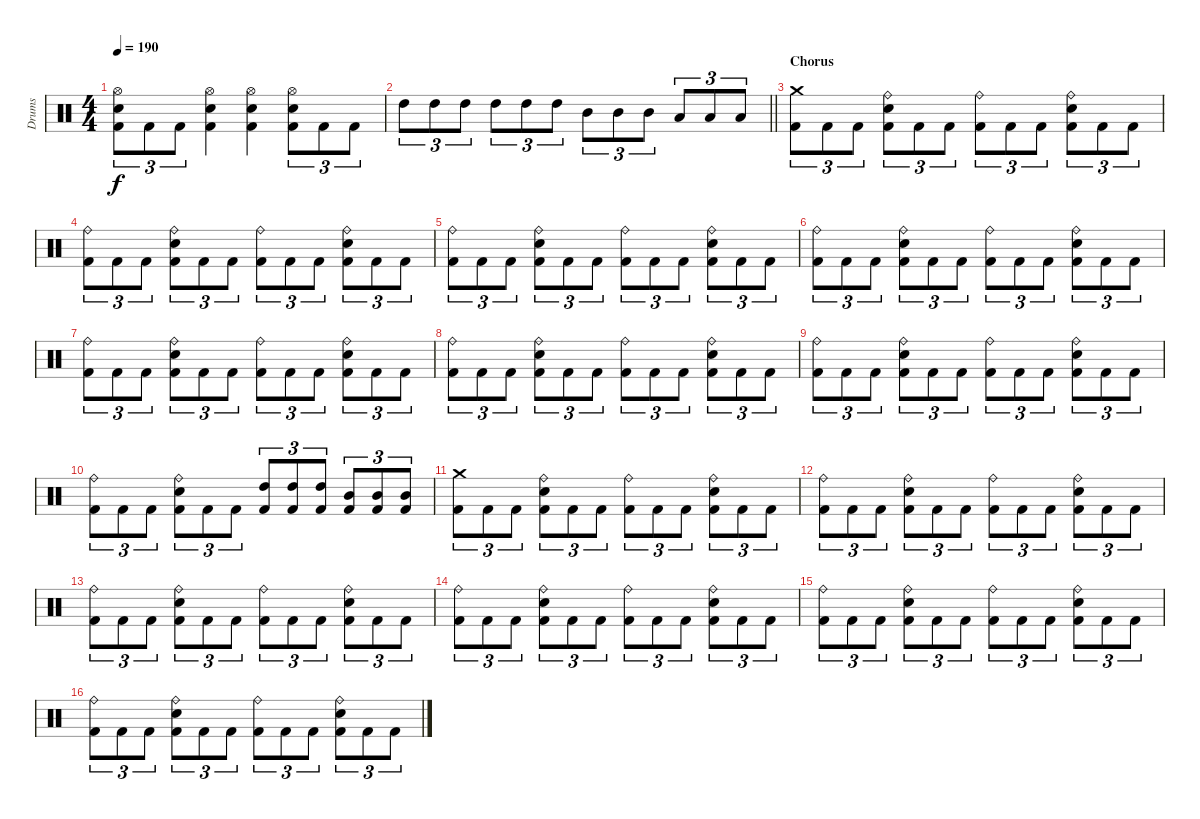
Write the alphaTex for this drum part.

\track ("Drums" "Drums") {instrument percussion}
\staff {score}
\articulation defaults
\ts (4 4)
\tempo 190
\clef neutral
\ks c
("Hi-Hat (open)" "Electric Snare (hit)" "Kick (hit) 2").8{tu (3 2) dy f} "Kick (hit) 2".8{tu (3 2)} "Kick (hit) 2".8{tu (3 2)} ("Hi-Hat (open)" "Electric Snare (hit)" "Kick (hit) 2").4 ("Hi-Hat (open)" "Electric Snare (hit)" "Kick (hit) 2").4 ("Hi-Hat (open)" "Electric Snare (hit)" "Kick (hit) 2").8{tu (3 2)} "Kick (hit) 2".8{tu (3 2)} "Kick (hit) 2".8{tu (3 2)} |
\barLineRight lightlight "High Tom (hit)".8{tu (3 2)} "High Tom (hit)".8{tu (3 2)} "High Tom (hit)".8{tu (3 2)} "High Tom (hit)".8{tu (3 2)} "High Tom (hit)".8{tu (3 2)} "High Tom (hit)".8{tu (3 2)} "Mid Tom (hit)".8{tu (3 2)} "Mid Tom (hit)".8{tu (3 2)} "Mid Tom (hit)".8{tu (3 2)} "Low Floor Tom (hit)".8{tu (3 2)} "Low Floor Tom (hit)".8{tu (3 2)} "Low Floor Tom (hit)".8{tu (3 2)}
|
\section ("" "Chorus")
("Crash medium (hit)" "Kick (hit) 2").8{tu (3 2)} "Kick (hit) 2".8{tu (3 2)} "Kick (hit) 2".8{tu (3 2)} ("Ride (bell)" "Electric Snare (hit)" "Kick (hit) 2").8{tu (3 2)} "Kick (hit) 2".8{tu (3 2)} "Kick (hit) 2".8{tu (3 2)} ("Ride (bell)" "Kick (hit) 2").8{tu (3 2)} "Kick (hit) 2".8{tu (3 2)} "Kick (hit) 2".8{tu (3 2)} ("Ride (bell)" "Electric Snare (hit)" "Kick (hit) 2").8{tu (3 2)} "Kick (hit) 2".8{tu (3 2)} "Kick (hit) 2".8{tu (3 2)} |
("Ride (bell)" "Kick (hit) 2").8{tu (3 2)} "Kick (hit) 2".8{tu (3 2)} "Kick (hit) 2".8{tu (3 2)} ("Ride (bell)" "Electric Snare (hit)" "Kick (hit) 2").8{tu (3 2)} "Kick (hit) 2".8{tu (3 2)} "Kick (hit) 2".8{tu (3 2)} ("Ride (bell)" "Kick (hit) 2").8{tu (3 2)} "Kick (hit) 2".8{tu (3 2)} "Kick (hit) 2".8{tu (3 2)} ("Ride (bell)" "Electric Snare (hit)" "Kick (hit) 2").8{tu (3 2)} "Kick (hit) 2".8{tu (3 2)} "Kick (hit) 2".8{tu (3 2)} |
("Ride (bell)" "Kick (hit) 2").8{tu (3 2)} "Kick (hit) 2".8{tu (3 2)} "Kick (hit) 2".8{tu (3 2)} ("Ride (bell)" "Electric Snare (hit)" "Kick (hit) 2").8{tu (3 2)} "Kick (hit) 2".8{tu (3 2)} "Kick (hit) 2".8{tu (3 2)} ("Ride (bell)" "Kick (hit) 2").8{tu (3 2)} "Kick (hit) 2".8{tu (3 2)} "Kick (hit) 2".8{tu (3 2)} ("Ride (bell)" "Electric Snare (hit)" "Kick (hit) 2").8{tu (3 2)} "Kick (hit) 2".8{tu (3 2)} "Kick (hit) 2".8{tu (3 2)} |
("Ride (bell)" "Kick (hit) 2").8{tu (3 2)} "Kick (hit) 2".8{tu (3 2)} "Kick (hit) 2".8{tu (3 2)} ("Ride (bell)" "Electric Snare (hit)" "Kick (hit) 2").8{tu (3 2)} "Kick (hit) 2".8{tu (3 2)} "Kick (hit) 2".8{tu (3 2)} ("Ride (bell)" "Kick (hit) 2").8{tu (3 2)} "Kick (hit) 2".8{tu (3 2)} "Kick (hit) 2".8{tu (3 2)} ("Ride (bell)" "Electric Snare (hit)" "Kick (hit) 2").8{tu (3 2)} "Kick (hit) 2".8{tu (3 2)} "Kick (hit) 2".8{tu (3 2)} |
("Ride (bell)" "Kick (hit) 2").8{tu (3 2)} "Kick (hit) 2".8{tu (3 2)} "Kick (hit) 2".8{tu (3 2)} ("Ride (bell)" "Electric Snare (hit)" "Kick (hit) 2").8{tu (3 2)} "Kick (hit) 2".8{tu (3 2)} "Kick (hit) 2".8{tu (3 2)} ("Ride (bell)" "Kick (hit) 2").8{tu (3 2)} "Kick (hit) 2".8{tu (3 2)} "Kick (hit) 2".8{tu (3 2)} ("Ride (bell)" "Electric Snare (hit)" "Kick (hit) 2").8{tu (3 2)} "Kick (hit) 2".8{tu (3 2)} "Kick (hit) 2".8{tu (3 2)} |
("Ride (bell)" "Kick (hit) 2").8{tu (3 2)} "Kick (hit) 2".8{tu (3 2)} "Kick (hit) 2".8{tu (3 2)} ("Ride (bell)" "Electric Snare (hit)" "Kick (hit) 2").8{tu (3 2)} "Kick (hit) 2".8{tu (3 2)} "Kick (hit) 2".8{tu (3 2)} ("Ride (bell)" "Kick (hit) 2").8{tu (3 2)} "Kick (hit) 2".8{tu (3 2)} "Kick (hit) 2".8{tu (3 2)} ("Ride (bell)" "Electric Snare (hit)" "Kick (hit) 2").8{tu (3 2)} "Kick (hit) 2".8{tu (3 2)} "Kick (hit) 2".8{tu (3 2)} |
("Ride (bell)" "Kick (hit) 2").8{tu (3 2)} "Kick (hit) 2".8{tu (3 2)} "Kick (hit) 2".8{tu (3 2)} ("Ride (bell)" "Electric Snare (hit)" "Kick (hit) 2").8{tu (3 2)} "Kick (hit) 2".8{tu (3 2)} "Kick (hit) 2".8{tu (3 2)} ("Ride (bell)" "Kick (hit) 2").8{tu (3 2)} "Kick (hit) 2".8{tu (3 2)} "Kick (hit) 2".8{tu (3 2)} ("Ride (bell)" "Electric Snare (hit)" "Kick (hit) 2").8{tu (3 2)} "Kick (hit) 2".8{tu (3 2)} "Kick (hit) 2".8{tu (3 2)} |
("Ride (bell)" "Kick (hit) 2").8{tu (3 2)} "Kick (hit) 2".8{tu (3 2)} "Kick (hit) 2".8{tu (3 2)} ("Ride (bell)" "Electric Snare (hit)" "Kick (hit) 2").8{tu (3 2)} "Kick (hit) 2".8{tu (3 2)} "Kick (hit) 2".8{tu (3 2)} ("High Tom (hit)" "Kick (hit) 2").8{tu (3 2)} ("High Tom (hit)" "Kick (hit) 2").8{tu (3 2)} ("High Tom (hit)" "Kick (hit) 2").8{tu (3 2)} ("Mid Tom (hit)" "Kick (hit) 2").8{tu (3 2)} ("Mid Tom (hit)" "Kick (hit) 2").8{tu (3 2)} ("Mid Tom (hit)" "Kick (hit) 2").8{tu (3 2)} |
("Crash medium (hit)" "Kick (hit) 2").8{tu (3 2)} "Kick (hit) 2".8{tu (3 2)} "Kick (hit) 2".8{tu (3 2)} ("Ride (bell)" "Electric Snare (hit)" "Kick (hit) 2").8{tu (3 2)} "Kick (hit) 2".8{tu (3 2)} "Kick (hit) 2".8{tu (3 2)} ("Ride (bell)" "Kick (hit) 2").8{tu (3 2)} "Kick (hit) 2".8{tu (3 2)} "Kick (hit) 2".8{tu (3 2)} ("Ride (bell)" "Electric Snare (hit)" "Kick (hit) 2").8{tu (3 2)} "Kick (hit) 2".8{tu (3 2)} "Kick (hit) 2".8{tu (3 2)} |
("Ride (bell)" "Kick (hit) 2").8{tu (3 2)} "Kick (hit) 2".8{tu (3 2)} "Kick (hit) 2".8{tu (3 2)} ("Ride (bell)" "Electric Snare (hit)" "Kick (hit) 2").8{tu (3 2)} "Kick (hit) 2".8{tu (3 2)} "Kick (hit) 2".8{tu (3 2)} ("Ride (bell)" "Kick (hit) 2").8{tu (3 2)} "Kick (hit) 2".8{tu (3 2)} "Kick (hit) 2".8{tu (3 2)} ("Ride (bell)" "Electric Snare (hit)" "Kick (hit) 2").8{tu (3 2)} "Kick (hit) 2".8{tu (3 2)} "Kick (hit) 2".8{tu (3 2)} |
("Ride (bell)" "Kick (hit) 2").8{tu (3 2)} "Kick (hit) 2".8{tu (3 2)} "Kick (hit) 2".8{tu (3 2)} ("Ride (bell)" "Electric Snare (hit)" "Kick (hit) 2").8{tu (3 2)} "Kick (hit) 2".8{tu (3 2)} "Kick (hit) 2".8{tu (3 2)} ("Ride (bell)" "Kick (hit) 2").8{tu (3 2)} "Kick (hit) 2".8{tu (3 2)} "Kick (hit) 2".8{tu (3 2)} ("Ride (bell)" "Electric Snare (hit)" "Kick (hit) 2").8{tu (3 2)} "Kick (hit) 2".8{tu (3 2)} "Kick (hit) 2".8{tu (3 2)} |
("Ride (bell)" "Kick (hit) 2").8{tu (3 2)} "Kick (hit) 2".8{tu (3 2)} "Kick (hit) 2".8{tu (3 2)} ("Ride (bell)" "Electric Snare (hit)" "Kick (hit) 2").8{tu (3 2)} "Kick (hit) 2".8{tu (3 2)} "Kick (hit) 2".8{tu (3 2)} ("Ride (bell)" "Kick (hit) 2").8{tu (3 2)} "Kick (hit) 2".8{tu (3 2)} "Kick (hit) 2".8{tu (3 2)} ("Ride (bell)" "Electric Snare (hit)" "Kick (hit) 2").8{tu (3 2)} "Kick (hit) 2".8{tu (3 2)} "Kick (hit) 2".8{tu (3 2)} |
("Ride (bell)" "Kick (hit) 2").8{tu (3 2)} "Kick (hit) 2".8{tu (3 2)} "Kick (hit) 2".8{tu (3 2)} ("Ride (bell)" "Electric Snare (hit)" "Kick (hit) 2").8{tu (3 2)} "Kick (hit) 2".8{tu (3 2)} "Kick (hit) 2".8{tu (3 2)} ("Ride (bell)" "Kick (hit) 2").8{tu (3 2)} "Kick (hit) 2".8{tu (3 2)} "Kick (hit) 2".8{tu (3 2)} ("Ride (bell)" "Electric Snare (hit)" "Kick (hit) 2").8{tu (3 2)} "Kick (hit) 2".8{tu (3 2)} "Kick (hit) 2".8{tu (3 2)} |
("Ride (bell)" "Kick (hit) 2").8{tu (3 2)} "Kick (hit) 2".8{tu (3 2)} "Kick (hit) 2".8{tu (3 2)} ("Ride (bell)" "Electric Snare (hit)" "Kick (hit) 2").8{tu (3 2)} "Kick (hit) 2".8{tu (3 2)} "Kick (hit) 2".8{tu (3 2)} ("Ride (bell)" "Kick (hit) 2").8{tu (3 2)} "Kick (hit) 2".8{tu (3 2)} "Kick (hit) 2".8{tu (3 2)} ("Ride (bell)" "Electric Snare (hit)" "Kick (hit) 2").8{tu (3 2)} "Kick (hit) 2".8{tu (3 2)} "Kick (hit) 2".8{tu (3 2)}
